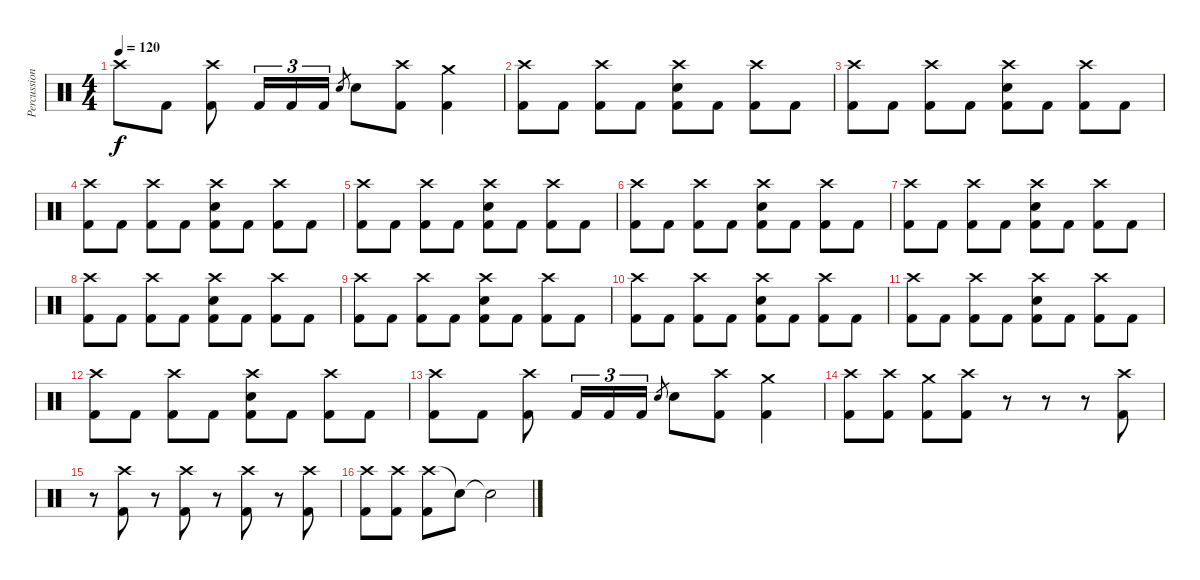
\track ("Percussion" "Percussion") {instrument percussion}
\staff {score}
\articulation defaults
\ts (4 4)
\tempo 120
\clef neutral
\ks c "Crash high (hit)".8{dy f} "Kick (hit) 2".8
("Crash high (hit)" "Kick (hit) 2").8 "Kick (hit) 2".16{tu (3 2)} "Kick (hit) 2".16{tu (3 2)} "Kick (hit) 2".16{tu (3 2)} "Snare (hit) 2".8{gr} "Snare (hit) 2".8 ("Crash high (hit)" "Kick (hit) 2").8 ("Crash medium (hit)" "Kick (hit) 2").4 |
("Crash high (hit)" "Kick (hit) 2").8 "Kick (hit) 2".8 ("Crash high (hit)" "Kick (hit) 2").8 "Kick (hit) 2".8 ("Crash high (hit)" "Snare (hit) 2" "Kick (hit) 2").8 "Kick (hit) 2".8 ("Crash high (hit)" "Kick (hit) 2").8 "Kick (hit) 2".8 |
("Crash high (hit)" "Kick (hit) 2").8 "Kick (hit) 2".8 ("Crash high (hit)" "Kick (hit) 2").8 "Kick (hit) 2".8 ("Crash high (hit)" "Snare (hit) 2" "Kick (hit) 2").8 "Kick (hit) 2".8 ("Crash high (hit)" "Kick (hit) 2").8 "Kick (hit) 2".8 |
("Crash high (hit)" "Kick (hit) 2").8 "Kick (hit) 2".8 ("Crash high (hit)" "Kick (hit) 2").8 "Kick (hit) 2".8 ("Crash high (hit)" "Snare (hit) 2" "Kick (hit) 2").8 "Kick (hit) 2".8 ("Crash high (hit)" "Kick (hit) 2").8 "Kick (hit) 2".8 |
("Crash high (hit)" "Kick (hit) 2").8 "Kick (hit) 2".8 ("Crash high (hit)" "Kick (hit) 2").8 "Kick (hit) 2".8 ("Crash high (hit)" "Snare (hit) 2" "Kick (hit) 2").8 "Kick (hit) 2".8 ("Crash high (hit)" "Kick (hit) 2").8 "Kick (hit) 2".8 |
("Crash high (hit)" "Kick (hit) 2").8 "Kick (hit) 2".8 ("Crash high (hit)" "Kick (hit) 2").8 "Kick (hit) 2".8 ("Crash high (hit)" "Snare (hit) 2" "Kick (hit) 2").8 "Kick (hit) 2".8 ("Crash high (hit)" "Kick (hit) 2").8 "Kick (hit) 2".8 |
("Crash high (hit)" "Kick (hit) 2").8 "Kick (hit) 2".8 ("Crash high (hit)" "Kick (hit) 2").8 "Kick (hit) 2".8 ("Crash high (hit)" "Snare (hit) 2" "Kick (hit) 2").8 "Kick (hit) 2".8 ("Crash high (hit)" "Kick (hit) 2").8 "Kick (hit) 2".8 |
("Crash high (hit)" "Kick (hit) 2").8 "Kick (hit) 2".8 ("Crash high (hit)" "Kick (hit) 2").8 "Kick (hit) 2".8 ("Crash high (hit)" "Snare (hit) 2" "Kick (hit) 2").8 "Kick (hit) 2".8 ("Crash high (hit)" "Kick (hit) 2").8 "Kick (hit) 2".8 |
("Crash high (hit)" "Kick (hit) 2").8 "Kick (hit) 2".8 ("Crash high (hit)" "Kick (hit) 2").8 "Kick (hit) 2".8 ("Crash high (hit)" "Snare (hit) 2" "Kick (hit) 2").8 "Kick (hit) 2".8 ("Crash high (hit)" "Kick (hit) 2").8 "Kick (hit) 2".8 |
("Crash high (hit)" "Kick (hit) 2").8 "Kick (hit) 2".8 ("Crash high (hit)" "Kick (hit) 2").8 "Kick (hit) 2".8 ("Crash high (hit)" "Snare (hit) 2" "Kick (hit) 2").8 "Kick (hit) 2".8 ("Crash high (hit)" "Kick (hit) 2").8 "Kick (hit) 2".8 |
("Crash high (hit)" "Kick (hit) 2").8 "Kick (hit) 2".8 ("Crash high (hit)" "Kick (hit) 2").8 "Kick (hit) 2".8 ("Crash high (hit)" "Snare (hit) 2" "Kick (hit) 2").8 "Kick (hit) 2".8 ("Crash high (hit)" "Kick (hit) 2").8 "Kick (hit) 2".8 |
("Crash high (hit)" "Kick (hit) 2").8 "Kick (hit) 2".8 ("Crash high (hit)" "Kick (hit) 2").8 "Kick (hit) 2".8 ("Crash high (hit)" "Snare (hit) 2" "Kick (hit) 2").8 "Kick (hit) 2".8 ("Crash high (hit)" "Kick (hit) 2").8 "Kick (hit) 2".8 |
("Crash high (hit)" "Kick (hit) 2").8 "Kick (hit) 2".8 ("Crash high (hit)" "Kick (hit) 2").8 "Kick (hit) 2".16{tu (3 2)} "Kick (hit) 2".16{tu (3 2)} "Kick (hit) 2".16{tu (3 2)} "Snare (hit) 2".8{gr} "Snare (hit) 2".8 ("Crash high (hit)" "Kick (hit) 2").8 ("Crash medium (hit)" "Kick (hit) 2").4 |
("Crash high (hit)" "Kick (hit) 2").8 ("Crash high (hit)" "Kick (hit) 2").8 ("Crash medium (hit)" "Kick (hit) 2").8 ("Crash high (hit)" "Kick (hit) 2").8 r.8{volume 0} r.8 r.8 ("Crash high (hit)" "Kick (hit) 2").8{volume 16} |
r.8{volume 0} ("Crash high (hit)" "Kick (hit) 2").8{volume 16} r.8{volume 0} ("Crash high (hit)" "Kick (hit) 2").8{volume 16} r.8{volume 0} ("Crash high (hit)" "Kick (hit) 2").8{volume 16} r.8{volume 0} ("Crash high (hit)" "Kick (hit) 2").8{volume 16} |
("Crash high (hit)" "Kick (hit) 2").8 ("Crash high (hit)" "Kick (hit) 2").8 ("Crash high (hit)" "Kick (hit) 2").8 "Snare (hit)"{t}.8 "Snare (hit)"{t}.2
